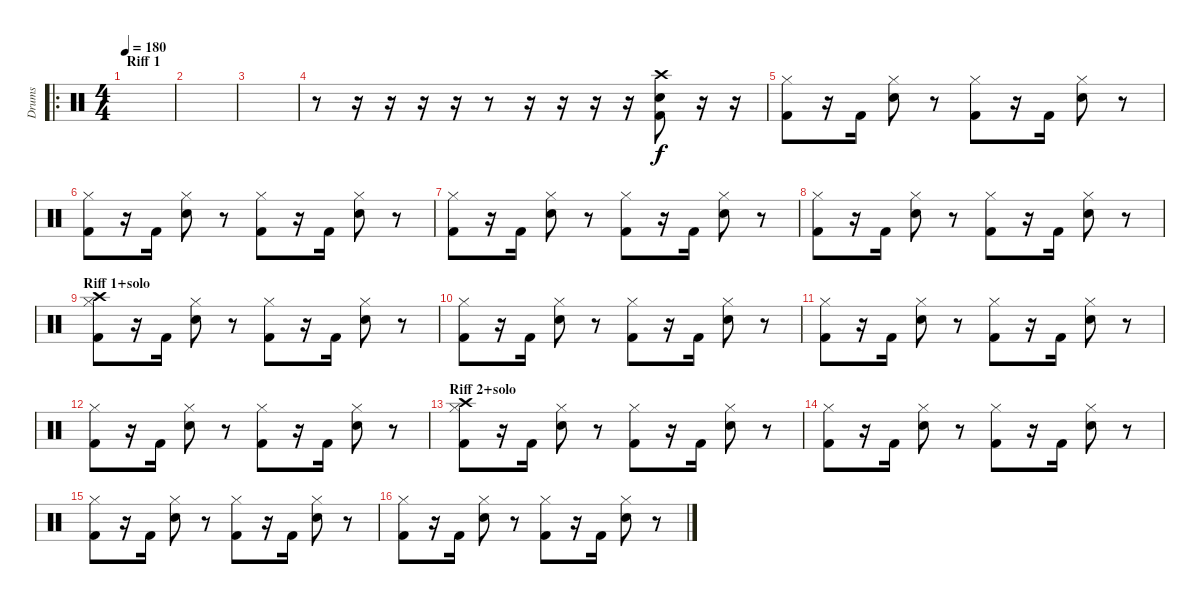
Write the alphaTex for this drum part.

\track ("Drums" "Drums") {instrument percussion}
\staff {score}
\articulation defaults
\ro
\ts (4 4)
\section ("" "Riff 1")
\tempo 180
\clef neutral
\ks c
|
|
|
r.8 r.16 r.16 r.16 r.16 r.8 r.16 r.16 r.16 r.16 ("Crash high (hit)" "Snare (hit) 2" "Kick (hit) 2").8 r.16 r.16 |
("Hi-Hat (closed)" "Kick (hit) 2").8 r.16 "Kick (hit) 2".16 ("Hi-Hat (closed)" "Snare (hit) 2").8 r.8 ("Hi-Hat (closed)" "Kick (hit) 2").8 r.16 "Kick (hit) 2".16 ("Hi-Hat (closed)" "Snare (hit) 2").8 r.8 |
("Hi-Hat (closed)" "Kick (hit) 2").8 r.16 "Kick (hit) 2".16 ("Hi-Hat (closed)" "Snare (hit) 2").8 r.8 ("Hi-Hat (closed)" "Kick (hit) 2").8 r.16 "Kick (hit) 2".16 ("Hi-Hat (closed)" "Snare (hit) 2").8 r.8 |
("Hi-Hat (closed)" "Kick (hit) 2").8 r.16 "Kick (hit) 2".16 ("Hi-Hat (closed)" "Snare (hit) 2").8 r.8 ("Hi-Hat (closed)" "Kick (hit) 2").8 r.16 "Kick (hit) 2".16 ("Hi-Hat (closed)" "Snare (hit) 2").8 r.8 |
("Hi-Hat (closed)" "Kick (hit) 2").8 r.16 "Kick (hit) 2".16 ("Hi-Hat (closed)" "Snare (hit) 2").8 r.8 ("Hi-Hat (closed)" "Kick (hit) 2").8 r.16 "Kick (hit) 2".16 ("Hi-Hat (closed)" "Snare (hit) 2").8 r.8 |
\section ("" "Riff 1+solo")
("Hi-Hat (closed)" "Crash high (hit)" "Kick (hit) 2").8 r.16 "Kick (hit) 2".16 ("Hi-Hat (closed)" "Snare (hit) 2").8 r.8 ("Hi-Hat (closed)" "Kick (hit) 2").8 r.16 "Kick (hit) 2".16 ("Hi-Hat (closed)" "Snare (hit) 2").8 r.8 |
("Hi-Hat (closed)" "Kick (hit) 2").8 r.16 "Kick (hit) 2".16 ("Hi-Hat (closed)" "Snare (hit) 2").8 r.8 ("Hi-Hat (closed)" "Kick (hit) 2").8 r.16 "Kick (hit) 2".16 ("Hi-Hat (closed)" "Snare (hit) 2").8 r.8 |
("Hi-Hat (closed)" "Kick (hit) 2").8 r.16 "Kick (hit) 2".16 ("Hi-Hat (closed)" "Snare (hit) 2").8 r.8 ("Hi-Hat (closed)" "Kick (hit) 2").8 r.16 "Kick (hit) 2".16 ("Hi-Hat (closed)" "Snare (hit) 2").8 r.8 |
("Hi-Hat (closed)" "Kick (hit) 2").8 r.16 "Kick (hit) 2".16 ("Hi-Hat (closed)" "Snare (hit) 2").8 r.8 ("Hi-Hat (closed)" "Kick (hit) 2").8 r.16 "Kick (hit) 2".16 ("Hi-Hat (closed)" "Snare (hit) 2").8 r.8 |
\section ("" "Riff 2+solo")
("Hi-Hat (closed)" "Crash high (hit)" "Kick (hit) 2").8 r.16 "Kick (hit) 2".16 ("Hi-Hat (closed)" "Snare (hit) 2").8 r.8 ("Hi-Hat (closed)" "Kick (hit) 2").8 r.16 "Kick (hit) 2".16 ("Hi-Hat (closed)" "Snare (hit) 2").8 r.8 |
("Hi-Hat (closed)" "Kick (hit) 2").8 r.16 "Kick (hit) 2".16 ("Hi-Hat (closed)" "Snare (hit) 2").8 r.8 ("Hi-Hat (closed)" "Kick (hit) 2").8 r.16 "Kick (hit) 2".16 ("Hi-Hat (closed)" "Snare (hit) 2").8 r.8 |
("Hi-Hat (closed)" "Kick (hit) 2").8 r.16 "Kick (hit) 2".16 ("Hi-Hat (closed)" "Snare (hit) 2").8 r.8 ("Hi-Hat (closed)" "Kick (hit) 2").8 r.16 "Kick (hit) 2".16 ("Hi-Hat (closed)" "Snare (hit) 2").8 r.8 |
("Hi-Hat (closed)" "Kick (hit) 2").8 r.16 "Kick (hit) 2".16 ("Hi-Hat (closed)" "Snare (hit) 2").8 r.8 ("Hi-Hat (closed)" "Kick (hit) 2").8 r.16 "Kick (hit) 2".16 ("Hi-Hat (closed)" "Snare (hit) 2").8 r.8
